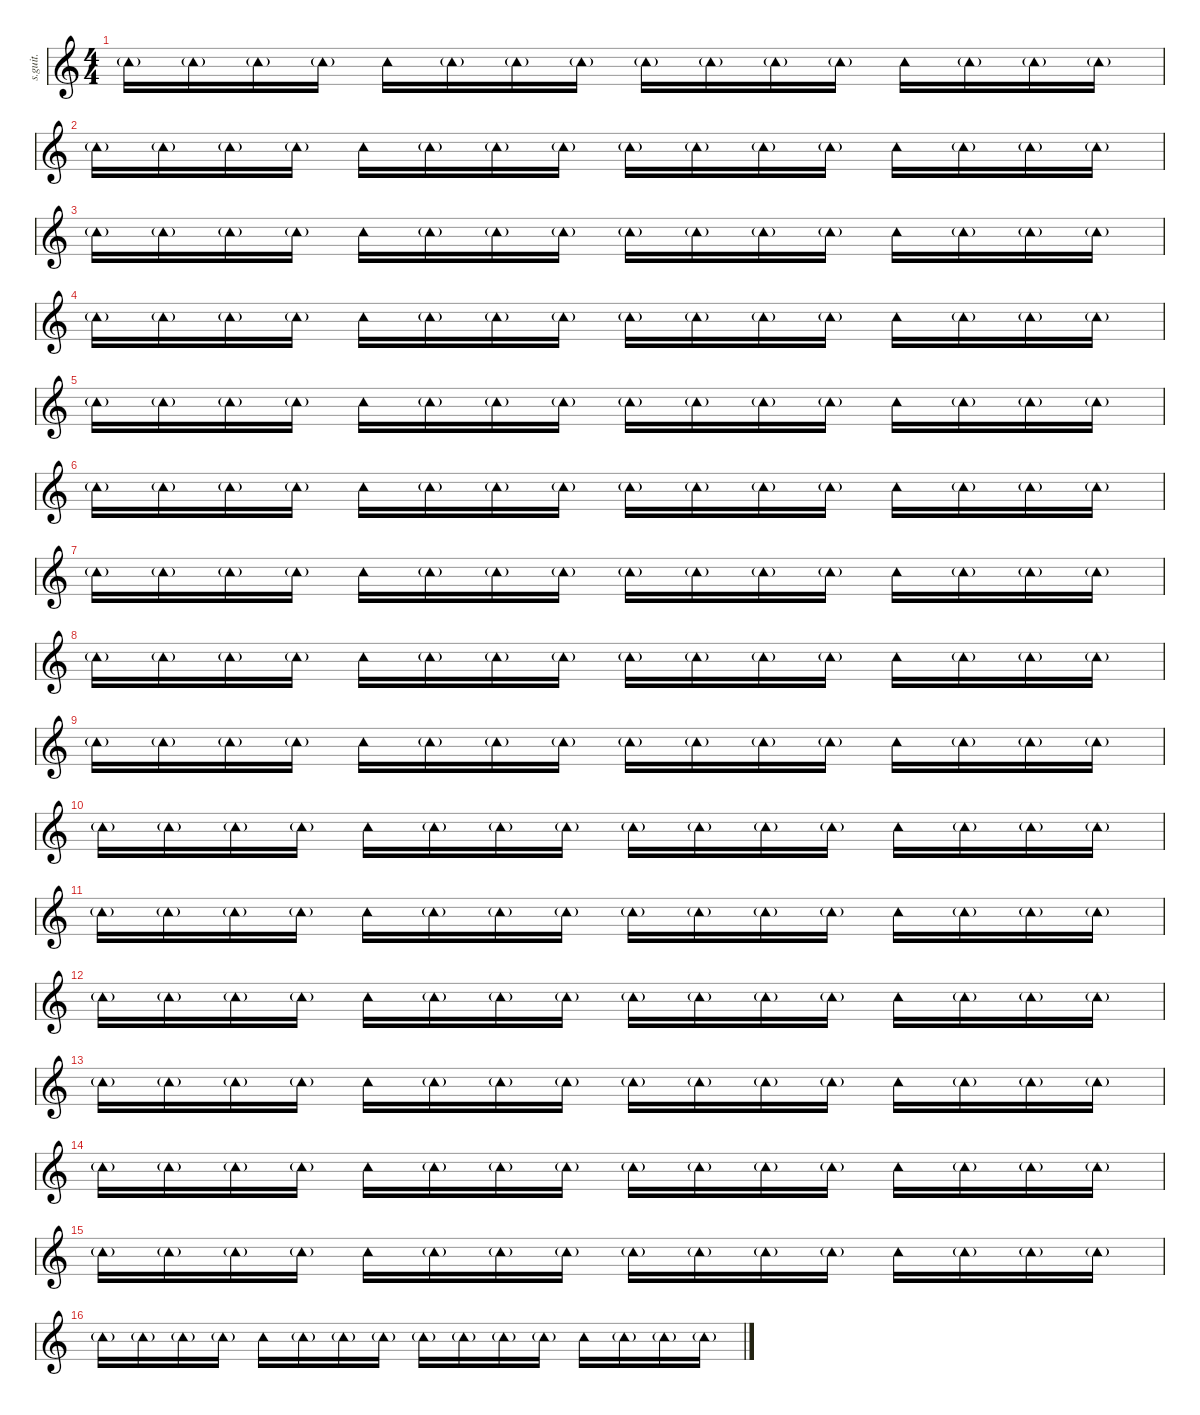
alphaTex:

\defaultSystemsLayout 4
\hideDynamics
\bracketExtendMode nobrackets
\track ("Tambourine" "s.guit.") {instrument percussion}
\staff {score}
\articulation defaults
\ts (4 4)
\tempo (136 hide)
\clef g2
\ks c "Tambourine (hit)"{g}.16{dy pp} "Tambourine (hit)"{g}.16 "Tambourine (hit)"{g}.16 "Tambourine (hit)"{g}.16 "Tambourine (hit)".16{dy mp} "Tambourine (hit)"{g}.16{dy pp} "Tambourine (hit)"{g}.16 "Tambourine (hit)"{g}.16 "Tambourine (hit)"{g}.16 "Tambourine (hit)"{g}.16 "Tambourine (hit)"{g}.16 "Tambourine (hit)"{g}.16 "Tambourine (hit)".16{dy mp} "Tambourine (hit)"{g}.16{dy pp} "Tambourine (hit)"{g}.16 "Tambourine (hit)"{g}.16
|
"Tambourine (hit)"{g}.16 "Tambourine (hit)"{g}.16 "Tambourine (hit)"{g}.16 "Tambourine (hit)"{g}.16 "Tambourine (hit)".16{dy mp} "Tambourine (hit)"{g}.16{dy pp} "Tambourine (hit)"{g}.16 "Tambourine (hit)"{g}.16 "Tambourine (hit)"{g}.16 "Tambourine (hit)"{g}.16 "Tambourine (hit)"{g}.16 "Tambourine (hit)"{g}.16 "Tambourine (hit)".16{dy mp} "Tambourine (hit)"{g}.16{dy pp} "Tambourine (hit)"{g}.16 "Tambourine (hit)"{g}.16 |
"Tambourine (hit)"{g}.16 "Tambourine (hit)"{g}.16 "Tambourine (hit)"{g}.16 "Tambourine (hit)"{g}.16 "Tambourine (hit)".16{dy mp} "Tambourine (hit)"{g}.16{dy pp} "Tambourine (hit)"{g}.16 "Tambourine (hit)"{g}.16 "Tambourine (hit)"{g}.16 "Tambourine (hit)"{g}.16 "Tambourine (hit)"{g}.16 "Tambourine (hit)"{g}.16 "Tambourine (hit)".16{dy mp} "Tambourine (hit)"{g}.16{dy pp} "Tambourine (hit)"{g}.16 "Tambourine (hit)"{g}.16 |
"Tambourine (hit)"{g}.16 "Tambourine (hit)"{g}.16 "Tambourine (hit)"{g}.16 "Tambourine (hit)"{g}.16 "Tambourine (hit)".16{dy mp} "Tambourine (hit)"{g}.16{dy pp} "Tambourine (hit)"{g}.16 "Tambourine (hit)"{g}.16 "Tambourine (hit)"{g}.16 "Tambourine (hit)"{g}.16 "Tambourine (hit)"{g}.16 "Tambourine (hit)"{g}.16 "Tambourine (hit)".16{dy mp} "Tambourine (hit)"{g}.16{dy pp} "Tambourine (hit)"{g}.16 "Tambourine (hit)"{g}.16 |
"Tambourine (hit)"{g}.16 "Tambourine (hit)"{g}.16 "Tambourine (hit)"{g}.16 "Tambourine (hit)"{g}.16 "Tambourine (hit)".16{dy mp} "Tambourine (hit)"{g}.16{dy pp} "Tambourine (hit)"{g}.16 "Tambourine (hit)"{g}.16 "Tambourine (hit)"{g}.16 "Tambourine (hit)"{g}.16 "Tambourine (hit)"{g}.16 "Tambourine (hit)"{g}.16 "Tambourine (hit)".16{dy mp} "Tambourine (hit)"{g}.16{dy pp} "Tambourine (hit)"{g}.16 "Tambourine (hit)"{g}.16 |
"Tambourine (hit)"{g}.16 "Tambourine (hit)"{g}.16 "Tambourine (hit)"{g}.16 "Tambourine (hit)"{g}.16 "Tambourine (hit)".16{dy mp} "Tambourine (hit)"{g}.16{dy pp} "Tambourine (hit)"{g}.16 "Tambourine (hit)"{g}.16 "Tambourine (hit)"{g}.16 "Tambourine (hit)"{g}.16 "Tambourine (hit)"{g}.16 "Tambourine (hit)"{g}.16 "Tambourine (hit)".16{dy mp} "Tambourine (hit)"{g}.16{dy pp} "Tambourine (hit)"{g}.16 "Tambourine (hit)"{g}.16 |
"Tambourine (hit)"{g}.16 "Tambourine (hit)"{g}.16 "Tambourine (hit)"{g}.16 "Tambourine (hit)"{g}.16 "Tambourine (hit)".16{dy mp} "Tambourine (hit)"{g}.16{dy pp} "Tambourine (hit)"{g}.16 "Tambourine (hit)"{g}.16 "Tambourine (hit)"{g}.16 "Tambourine (hit)"{g}.16 "Tambourine (hit)"{g}.16 "Tambourine (hit)"{g}.16 "Tambourine (hit)".16{dy mp} "Tambourine (hit)"{g}.16{dy pp} "Tambourine (hit)"{g}.16 "Tambourine (hit)"{g}.16 |
"Tambourine (hit)"{g}.16 "Tambourine (hit)"{g}.16 "Tambourine (hit)"{g}.16 "Tambourine (hit)"{g}.16 "Tambourine (hit)".16{dy mp} "Tambourine (hit)"{g}.16{dy pp} "Tambourine (hit)"{g}.16 "Tambourine (hit)"{g}.16 "Tambourine (hit)"{g}.16 "Tambourine (hit)"{g}.16 "Tambourine (hit)"{g}.16 "Tambourine (hit)"{g}.16 "Tambourine (hit)".16{dy mp} "Tambourine (hit)"{g}.16{dy pp} "Tambourine (hit)"{g}.16 "Tambourine (hit)"{g}.16 |
"Tambourine (hit)"{g}.16 "Tambourine (hit)"{g}.16 "Tambourine (hit)"{g}.16 "Tambourine (hit)"{g}.16 "Tambourine (hit)".16{dy mp} "Tambourine (hit)"{g}.16{dy pp} "Tambourine (hit)"{g}.16 "Tambourine (hit)"{g}.16 "Tambourine (hit)"{g}.16 "Tambourine (hit)"{g}.16 "Tambourine (hit)"{g}.16 "Tambourine (hit)"{g}.16 "Tambourine (hit)".16{dy mp} "Tambourine (hit)"{g}.16{dy pp} "Tambourine (hit)"{g}.16 "Tambourine (hit)"{g}.16 |
"Tambourine (hit)"{g}.16 "Tambourine (hit)"{g}.16 "Tambourine (hit)"{g}.16 "Tambourine (hit)"{g}.16 "Tambourine (hit)".16{dy mp} "Tambourine (hit)"{g}.16{dy pp} "Tambourine (hit)"{g}.16 "Tambourine (hit)"{g}.16 "Tambourine (hit)"{g}.16 "Tambourine (hit)"{g}.16 "Tambourine (hit)"{g}.16 "Tambourine (hit)"{g}.16 "Tambourine (hit)".16{dy mp} "Tambourine (hit)"{g}.16{dy pp} "Tambourine (hit)"{g}.16 "Tambourine (hit)"{g}.16 |
"Tambourine (hit)"{g}.16 "Tambourine (hit)"{g}.16 "Tambourine (hit)"{g}.16 "Tambourine (hit)"{g}.16 "Tambourine (hit)".16{dy mp} "Tambourine (hit)"{g}.16{dy pp} "Tambourine (hit)"{g}.16 "Tambourine (hit)"{g}.16 "Tambourine (hit)"{g}.16 "Tambourine (hit)"{g}.16 "Tambourine (hit)"{g}.16 "Tambourine (hit)"{g}.16 "Tambourine (hit)".16{dy mp} "Tambourine (hit)"{g}.16{dy pp} "Tambourine (hit)"{g}.16 "Tambourine (hit)"{g}.16 |
"Tambourine (hit)"{g}.16 "Tambourine (hit)"{g}.16 "Tambourine (hit)"{g}.16 "Tambourine (hit)"{g}.16 "Tambourine (hit)".16{dy mp} "Tambourine (hit)"{g}.16{dy pp} "Tambourine (hit)"{g}.16 "Tambourine (hit)"{g}.16 "Tambourine (hit)"{g}.16 "Tambourine (hit)"{g}.16 "Tambourine (hit)"{g}.16 "Tambourine (hit)"{g}.16 "Tambourine (hit)".16{dy mp} "Tambourine (hit)"{g}.16{dy pp} "Tambourine (hit)"{g}.16 "Tambourine (hit)"{g}.16 |
"Tambourine (hit)"{g}.16 "Tambourine (hit)"{g}.16 "Tambourine (hit)"{g}.16 "Tambourine (hit)"{g}.16 "Tambourine (hit)".16{dy mp} "Tambourine (hit)"{g}.16{dy pp} "Tambourine (hit)"{g}.16 "Tambourine (hit)"{g}.16 "Tambourine (hit)"{g}.16 "Tambourine (hit)"{g}.16 "Tambourine (hit)"{g}.16 "Tambourine (hit)"{g}.16 "Tambourine (hit)".16{dy mp} "Tambourine (hit)"{g}.16{dy pp} "Tambourine (hit)"{g}.16 "Tambourine (hit)"{g}.16 |
"Tambourine (hit)"{g}.16 "Tambourine (hit)"{g}.16 "Tambourine (hit)"{g}.16 "Tambourine (hit)"{g}.16 "Tambourine (hit)".16{dy mp} "Tambourine (hit)"{g}.16{dy pp} "Tambourine (hit)"{g}.16 "Tambourine (hit)"{g}.16 "Tambourine (hit)"{g}.16 "Tambourine (hit)"{g}.16 "Tambourine (hit)"{g}.16 "Tambourine (hit)"{g}.16 "Tambourine (hit)".16{dy mp} "Tambourine (hit)"{g}.16{dy pp} "Tambourine (hit)"{g}.16 "Tambourine (hit)"{g}.16 |
"Tambourine (hit)"{g}.16 "Tambourine (hit)"{g}.16 "Tambourine (hit)"{g}.16 "Tambourine (hit)"{g}.16 "Tambourine (hit)".16{dy mp} "Tambourine (hit)"{g}.16{dy pp} "Tambourine (hit)"{g}.16 "Tambourine (hit)"{g}.16 "Tambourine (hit)"{g}.16 "Tambourine (hit)"{g}.16 "Tambourine (hit)"{g}.16 "Tambourine (hit)"{g}.16 "Tambourine (hit)".16{dy mp} "Tambourine (hit)"{g}.16{dy pp} "Tambourine (hit)"{g}.16 "Tambourine (hit)"{g}.16 |
"Tambourine (hit)"{g}.16 "Tambourine (hit)"{g}.16 "Tambourine (hit)"{g}.16 "Tambourine (hit)"{g}.16 "Tambourine (hit)".16{dy mp} "Tambourine (hit)"{g}.16{dy pp} "Tambourine (hit)"{g}.16 "Tambourine (hit)"{g}.16 "Tambourine (hit)"{g}.16 "Tambourine (hit)"{g}.16 "Tambourine (hit)"{g}.16 "Tambourine (hit)"{g}.16 "Tambourine (hit)".16{dy mp} "Tambourine (hit)"{g}.16{dy pp} "Tambourine (hit)"{g}.16 "Tambourine (hit)"{g}.16
